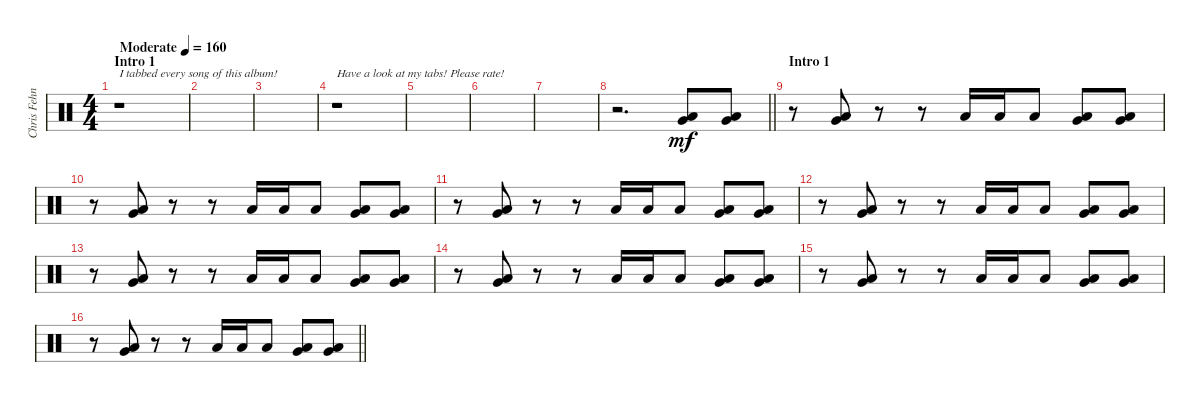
\track ("Chris Fehn" "Chris Fehn") {instrument percussion}
\staff {score}
\articulation defaults
\ts (4 4)
\section ("" "Intro 1")
\tempo (160 "Moderate")
\clef neutral
\ks c
r.1{txt "I tabbed every song of this album! " dy mf} |
|
|
r.1{txt "Have a look at my tabs! Please rate!"} |
|
|
|
\barLineRight lightlight
r.2{d} ("Very Low Tom (hit)" "Low Floor Tom (hit)").8 ("Very Low Tom (hit)" "Low Floor Tom (hit)").8 |
\section ("" "Intro 1")
r.8 ("Very Low Tom (hit)" "Low Floor Tom (hit)").8 r.8 r.8 "Low Floor Tom (hit)".16 "Low Floor Tom (hit)".16 "Low Floor Tom (hit)".8 ("Very Low Tom (hit)" "Low Floor Tom (hit)").8 ("Very Low Tom (hit)" "Low Floor Tom (hit)").8 |
r.8 ("Very Low Tom (hit)" "Low Floor Tom (hit)").8 r.8 r.8 "Low Floor Tom (hit)".16 "Low Floor Tom (hit)".16 "Low Floor Tom (hit)".8 ("Very Low Tom (hit)" "Low Floor Tom (hit)").8 ("Very Low Tom (hit)" "Low Floor Tom (hit)").8 |
r.8 ("Very Low Tom (hit)" "Low Floor Tom (hit)").8 r.8 r.8 "Low Floor Tom (hit)".16 "Low Floor Tom (hit)".16 "Low Floor Tom (hit)".8 ("Very Low Tom (hit)" "Low Floor Tom (hit)").8 ("Very Low Tom (hit)" "Low Floor Tom (hit)").8 |
r.8 ("Very Low Tom (hit)" "Low Floor Tom (hit)").8 r.8 r.8 "Low Floor Tom (hit)".16 "Low Floor Tom (hit)".16 "Low Floor Tom (hit)".8 ("Very Low Tom (hit)" "Low Floor Tom (hit)").8 ("Very Low Tom (hit)" "Low Floor Tom (hit)").8 |
r.8 ("Very Low Tom (hit)" "Low Floor Tom (hit)").8 r.8 r.8 "Low Floor Tom (hit)".16 "Low Floor Tom (hit)".16 "Low Floor Tom (hit)".8 ("Very Low Tom (hit)" "Low Floor Tom (hit)").8 ("Very Low Tom (hit)" "Low Floor Tom (hit)").8 |
r.8 ("Very Low Tom (hit)" "Low Floor Tom (hit)").8 r.8 r.8 "Low Floor Tom (hit)".16 "Low Floor Tom (hit)".16 "Low Floor Tom (hit)".8 ("Very Low Tom (hit)" "Low Floor Tom (hit)").8 ("Very Low Tom (hit)" "Low Floor Tom (hit)").8 |
r.8 ("Very Low Tom (hit)" "Low Floor Tom (hit)").8 r.8 r.8 "Low Floor Tom (hit)".16 "Low Floor Tom (hit)".16 "Low Floor Tom (hit)".8 ("Very Low Tom (hit)" "Low Floor Tom (hit)").8 ("Very Low Tom (hit)" "Low Floor Tom (hit)").8 |
\barLineRight lightlight
r.8 ("Very Low Tom (hit)" "Low Floor Tom (hit)").8 r.8 r.8 "Low Floor Tom (hit)".16 "Low Floor Tom (hit)".16 "Low Floor Tom (hit)".8 ("Very Low Tom (hit)" "Low Floor Tom (hit)").8 ("Very Low Tom (hit)" "Low Floor Tom (hit)").8
